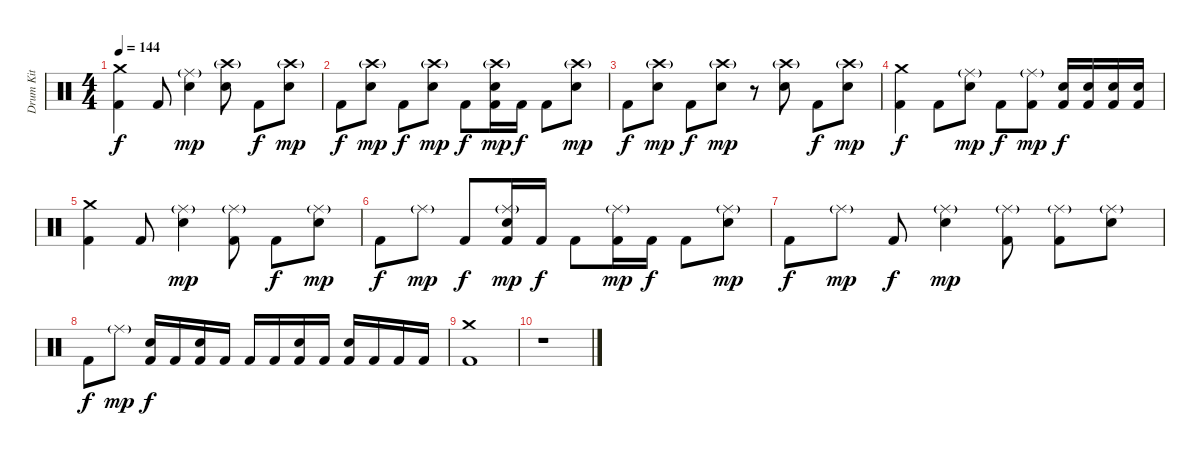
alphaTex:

\track ("Drum Kit" "Drum Kit") {instrument percussion}
\staff {score}
\articulation defaults
\ts (4 4)
\tempo 144
\clef neutral
\ks c
("Crash medium (hit)" "Kick (hit) 2").4{dy f} "Kick (hit) 2".8 ("Ride (middle)"{g} "Electric Snare (hit)").4{dy mp} ("Crash high (hit)"{g} "Electric Snare (hit)").8 "Kick (hit) 2".8{dy f} ("Crash high (hit)"{g} "Electric Snare (hit)").8{dy mp} |
"Kick (hit) 2".8{dy f} ("Crash high (hit)"{g} "Electric Snare (hit)").8{dy mp} "Kick (hit) 2".8{dy f} ("Crash high (hit)"{g} "Electric Snare (hit)").8{dy mp} "Kick (hit) 2".8{dy f} ("Crash high (hit)"{g} "Electric Snare (hit)" "Kick (hit) 2").16{dy mp} "Kick (hit) 2".16{dy f} "Kick (hit) 2".8 ("Crash high (hit)"{g} "Electric Snare (hit)").8{dy mp} |
"Kick (hit) 2".8{dy f} ("Crash high (hit)"{g} "Electric Snare (hit)").8{dy mp} "Kick (hit) 2".8{dy f} ("Crash high (hit)"{g} "Electric Snare (hit)").8{dy mp} r.8 ("Crash high (hit)"{g} "Electric Snare (hit)").8 "Kick (hit) 2".8{dy f} ("Crash high (hit)"{g} "Electric Snare (hit)").8{dy mp} |
("Crash medium (hit)" "Kick (hit) 2").4{dy f} "Kick (hit) 2".8 ("Ride (middle)"{g} "Electric Snare (hit)").8{dy mp} "Kick (hit) 2".8{dy f} ("Ride (middle)"{g} "Kick (hit) 2").8{dy mp} ("Electric Snare (hit)" "Kick (hit) 2").16{dy f} ("Electric Snare (hit)" "Kick (hit) 2").16 ("Electric Snare (hit)" "Kick (hit) 2").16 ("Electric Snare (hit)" "Kick (hit) 2").16 |
("Crash medium (hit)" "Kick (hit) 2").4 "Kick (hit) 2".8 ("Ride (middle)"{g} "Electric Snare (hit)").4{dy mp} ("Ride (middle)"{g} "Kick (hit) 2").8 "Kick (hit) 2".8{dy f} ("Ride (middle)"{g} "Electric Snare (hit)").8{dy mp} |
"Kick (hit) 2".8{dy f} "Ride (middle)"{g}.8{dy mp} "Kick (hit) 2".8{dy f} ("Ride (middle)"{g} "Electric Snare (hit)" "Kick (hit) 2").16{dy mp} "Kick (hit) 2".16{dy f} "Kick (hit) 2".8 ("Ride (middle)"{g} "Kick (hit) 2").16{dy mp} "Kick (hit) 2".16{dy f} "Kick (hit) 2".8 ("Ride (middle)"{g} "Electric Snare (hit)").8{dy mp} |
"Kick (hit) 2".8{dy f} "Ride (middle)"{g}.8{dy mp} "Kick (hit) 2".8{dy f} ("Ride (middle)"{g} "Electric Snare (hit)").4{dy mp} ("Ride (middle)"{g} "Kick (hit) 2").8 ("Ride (middle)"{g} "Kick (hit) 2").8 ("Ride (middle)"{g} "Electric Snare (hit)").8 |
"Kick (hit) 2".8{dy f} "Ride (middle)"{g}.8{dy mp} ("Electric Snare (hit)" "Kick (hit) 2").16{dy f} "Kick (hit) 2".16 ("Electric Snare (hit)" "Kick (hit) 2").16 "Kick (hit) 2".16 "Kick (hit) 2".16 "Kick (hit) 2".16 ("Electric Snare (hit)" "Kick (hit) 2").16 "Kick (hit) 2".16 ("Electric Snare (hit)" "Kick (hit) 2").16 "Kick (hit) 2".16 "Kick (hit) 2".16 "Kick (hit) 2".16 |
("Crash medium (hit)" "Kick (hit) 2").1 |
r.1
